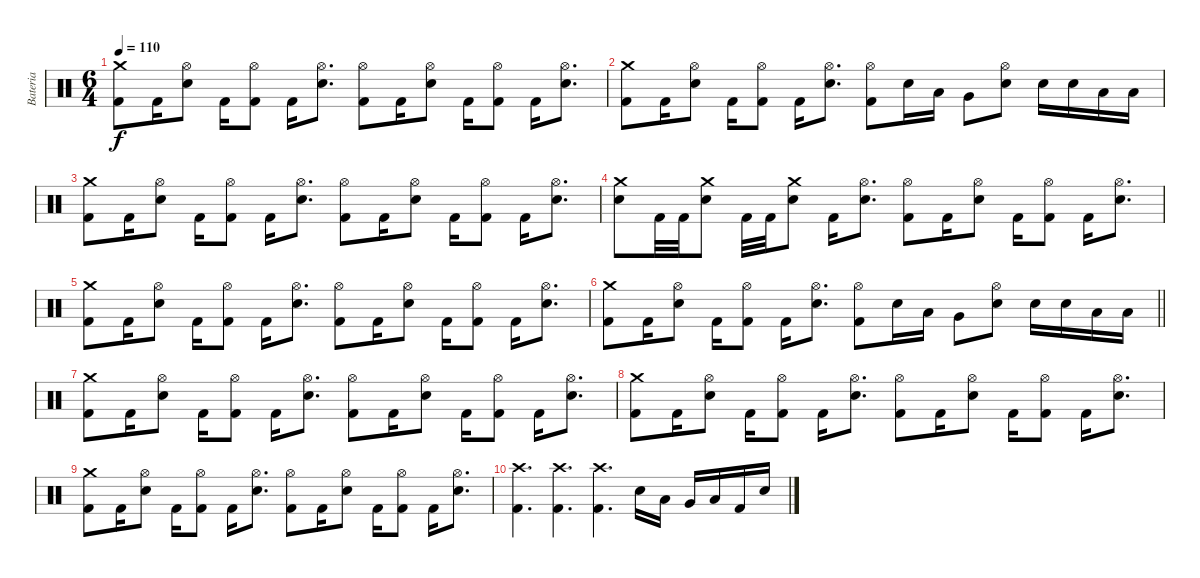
\track ("Bateria" "Bateria") {instrument percussion}
\staff {score}
\articulation defaults
\ts (6 4)
\tempo 110
\clef neutral
\ks c
("Crash medium (hit)" "Kick (hit) 2").8{dy f} "Kick (hit) 2".16 ("Hi-Hat (open)" "Snare (hit) 2").8 "Kick (hit) 2".16 ("Hi-Hat (open)" "Kick (hit) 2").8 "Kick (hit) 2".16 ("Hi-Hat (open)" "Snare (hit) 2").8{d} ("Hi-Hat (open)" "Kick (hit) 2").8 "Kick (hit) 2".16 ("Hi-Hat (open)" "Snare (hit) 2").8 "Kick (hit) 2".16 ("Hi-Hat (open)" "Kick (hit) 2").8 "Kick (hit) 2".16 ("Hi-Hat (open)" "Snare (hit) 2").8{d} |
("Crash medium (hit)" "Kick (hit) 2").8 "Kick (hit) 2".16 ("Hi-Hat (open)" "Snare (hit) 2").8 "Kick (hit) 2".16 ("Hi-Hat (open)" "Kick (hit) 2").8 "Kick (hit) 2".16 ("Hi-Hat (open)" "Snare (hit) 2").8{d} ("Hi-Hat (open)" "Kick (hit) 2").8 "Snare (hit) 2".16 "Low Tom (hit)".16 "Very Low Tom (hit)".8 ("Hi-Hat (open)" "Snare (hit) 2").8 "Snare (hit) 2".16 "Snare (hit) 2".16 "Low Tom (hit)".16 "Low Tom (hit)".16 |
("Crash medium (hit)" "Kick (hit) 2").8 "Kick (hit) 2".16 ("Hi-Hat (open)" "Snare (hit) 2").8 "Kick (hit) 2".16 ("Hi-Hat (open)" "Kick (hit) 2").8 "Kick (hit) 2".16 ("Hi-Hat (open)" "Snare (hit) 2").8{d} ("Hi-Hat (open)" "Kick (hit) 2").8 "Kick (hit) 2".16 ("Hi-Hat (open)" "Snare (hit) 2").8 "Kick (hit) 2".16 ("Hi-Hat (open)" "Kick (hit) 2").8 "Kick (hit) 2".16 ("Hi-Hat (open)" "Snare (hit) 2").8{d} |
("Crash medium (hit)" "Snare (hit) 2").8 "Kick (hit) 2".32 "Kick (hit) 2".32 ("Crash medium (hit)" "Snare (hit) 2").8 "Kick (hit) 2".32 "Kick (hit) 2".32 ("Crash medium (hit)" "Snare (hit) 2").8 "Kick (hit) 2".16 ("Hi-Hat (open)" "Snare (hit) 2").8{d} ("Hi-Hat (open)" "Kick (hit) 2").8 "Kick (hit) 2".16 ("Hi-Hat (open)" "Snare (hit) 2").8 "Kick (hit) 2".16 ("Hi-Hat (open)" "Kick (hit) 2").8 "Kick (hit) 2".16 ("Hi-Hat (open)" "Snare (hit) 2").8{d} |
("Crash medium (hit)" "Kick (hit) 2").8 "Kick (hit) 2".16 ("Hi-Hat (open)" "Snare (hit) 2").8 "Kick (hit) 2".16 ("Hi-Hat (open)" "Kick (hit) 2").8 "Kick (hit) 2".16 ("Hi-Hat (open)" "Snare (hit) 2").8{d} ("Hi-Hat (open)" "Kick (hit) 2").8 "Kick (hit) 2".16 ("Hi-Hat (open)" "Snare (hit) 2").8 "Kick (hit) 2".16 ("Hi-Hat (open)" "Kick (hit) 2").8 "Kick (hit) 2".16 ("Hi-Hat (open)" "Snare (hit) 2").8{d} |
\barLineRight lightlight
("Crash medium (hit)" "Kick (hit) 2").8 "Kick (hit) 2".16 ("Hi-Hat (open)" "Snare (hit) 2").8 "Kick (hit) 2".16 ("Hi-Hat (open)" "Kick (hit) 2").8 "Kick (hit) 2".16 ("Hi-Hat (open)" "Snare (hit) 2").8{d} ("Hi-Hat (open)" "Kick (hit) 2").8 "Snare (hit) 2".16 "Low Tom (hit)".16 "Very Low Tom (hit)".8 ("Hi-Hat (open)" "Snare (hit) 2").8 "Snare (hit) 2".16 "Snare (hit) 2".16 "Low Tom (hit)".16 "Low Tom (hit)".16 |
("Crash medium (hit)" "Kick (hit) 2").8 "Kick (hit) 2".16 ("Hi-Hat (open)" "Snare (hit) 2").8 "Kick (hit) 2".16 ("Hi-Hat (open)" "Kick (hit) 2").8 "Kick (hit) 2".16 ("Hi-Hat (open)" "Snare (hit) 2").8{d} ("Hi-Hat (open)" "Kick (hit) 2").8 "Kick (hit) 2".16 ("Hi-Hat (open)" "Snare (hit) 2").8 "Kick (hit) 2".16 ("Hi-Hat (open)" "Kick (hit) 2").8 "Kick (hit) 2".16 ("Hi-Hat (open)" "Snare (hit) 2").8{d} |
("Crash medium (hit)" "Kick (hit) 2").8 "Kick (hit) 2".16 ("Hi-Hat (open)" "Snare (hit) 2").8 "Kick (hit) 2".16 ("Hi-Hat (open)" "Kick (hit) 2").8 "Kick (hit) 2".16 ("Hi-Hat (open)" "Snare (hit) 2").8{d} ("Hi-Hat (open)" "Kick (hit) 2").8 "Kick (hit) 2".16 ("Hi-Hat (open)" "Snare (hit) 2").8 "Kick (hit) 2".16 ("Hi-Hat (open)" "Kick (hit) 2").8 "Kick (hit) 2".16 ("Hi-Hat (open)" "Snare (hit) 2").8{d} |
("Crash medium (hit)" "Kick (hit) 2").8 "Kick (hit) 2".16 ("Hi-Hat (open)" "Snare (hit) 2").8 "Kick (hit) 2".16 ("Hi-Hat (open)" "Kick (hit) 2").8 "Kick (hit) 2".16 ("Hi-Hat (open)" "Snare (hit) 2").8{d} ("Hi-Hat (open)" "Kick (hit) 2").8 "Kick (hit) 2".16 ("Hi-Hat (open)" "Snare (hit) 2").8 "Kick (hit) 2".16 ("Hi-Hat (open)" "Kick (hit) 2").8 "Kick (hit) 2".16 ("Hi-Hat (open)" "Snare (hit) 2").8{d} |
("Crash high (hit)" "Kick (hit) 2").4{d} ("Crash high (hit)" "Kick (hit) 2").4{d} ("Crash high (hit)" "Kick (hit) 2").4{d} "Snare (hit) 2".16 "Low Tom (hit)".16 "Very Low Tom (hit)".16 "Low Floor Tom (hit)".16 "Kick (hit) 2".16 "Snare (hit) 2".16
